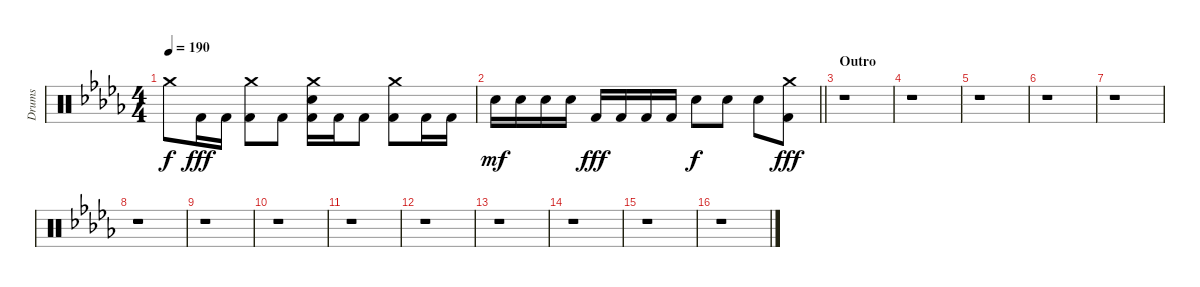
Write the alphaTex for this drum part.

\track ("Drums" "Drums") {instrument percussion}
\staff {score}
\articulation defaults
\ts (4 4)
\tempo 190
\clef neutral
\ks db "Crash medium (hit)".8{dy f} "Kick (hit) 2".16{dy fff} "Kick (hit) 2".16
("Crash medium (hit)" "Kick (hit) 2").8 "Kick (hit) 2".8 ("Crash medium (hit)" "Electric Snare (hit)" "Kick (hit) 2").16 "Kick (hit) 2".16 "Kick (hit) 2".8 ("Crash medium (hit)" "Kick (hit) 2").8 "Kick (hit) 2".16 "Kick (hit) 2".16 |
\barLineRight lightlight "Electric Snare (hit)".16{dy mf} "Electric Snare (hit)".16 "Electric Snare (hit)".16 "Electric Snare (hit)".16 "Kick (hit) 2".16{dy fff} "Kick (hit) 2".16 "Kick (hit) 2".16 "Kick (hit) 2".16 "Electric Snare (hit)".8{dy f} "Electric Snare (hit)".8 "Electric Snare (hit)".8
("Crash medium (hit)" "Kick (hit) 2").8{dy fff} |
\section ("" "Outro")
r.1 |
r.1 |
r.1 |
r.1 |
r.1 |
r.1 |
r.1 |
r.1 |
r.1 |
r.1 |
r.1 |
r.1 |
r.1 |
r.1
